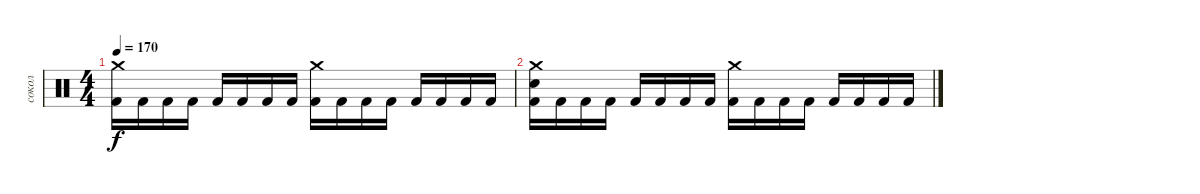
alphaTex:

\track ("сокол" "сокол") {instrument percussion}
\staff
\articulation defaults
\ts (4 4)
\tempo 170
\clef neutral
\ks c
("Crash medium (hit)" "Kick (hit) 2").16{dy f} "Kick (hit) 2".16 "Kick (hit) 2".16 "Kick (hit) 2".16 "Kick (hit) 2".16 "Kick (hit) 2".16 "Kick (hit) 2".16 "Kick (hit) 2".16 ("Crash medium (hit)" "Kick (hit) 2").16 "Kick (hit) 2".16 "Kick (hit) 2".16 "Kick (hit) 2".16 "Kick (hit) 2".16 "Kick (hit) 2".16 "Kick (hit) 2".16 "Kick (hit) 2".16 |
("Crash medium (hit)" "Electric Snare (hit)" "Kick (hit) 2").16 "Kick (hit) 2".16 "Kick (hit) 2".16 "Kick (hit) 2".16 "Kick (hit) 2".16 "Kick (hit) 2".16 "Kick (hit) 2".16 "Kick (hit) 2".16 ("Crash medium (hit)" "Kick (hit) 2").16 "Kick (hit) 2".16 "Kick (hit) 2".16 "Kick (hit) 2".16 "Kick (hit) 2".16 "Kick (hit) 2".16 "Kick (hit) 2".16 "Kick (hit) 2".16
